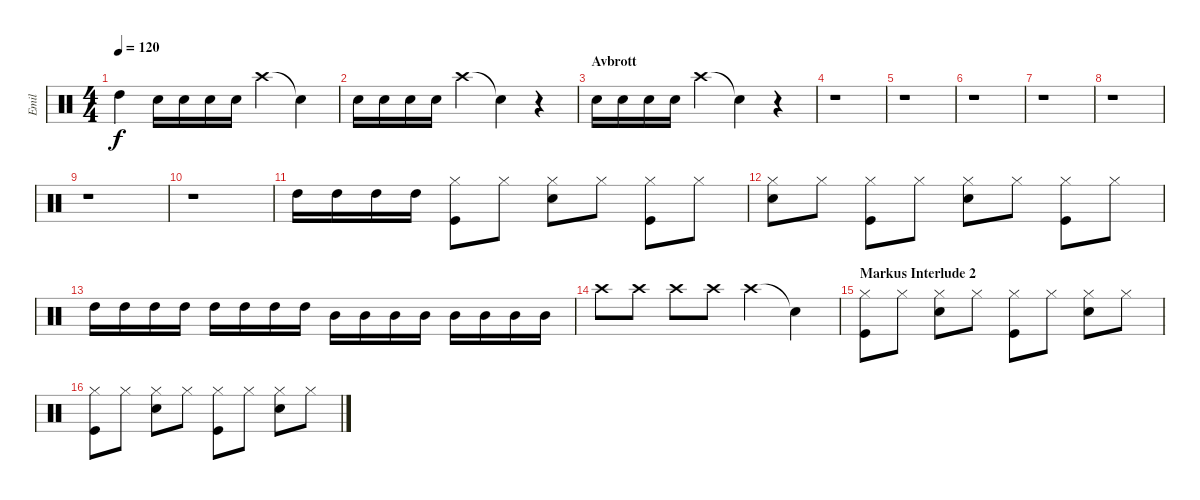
\track ("Emil" "Emil") {instrument percussion}
\staff {score}
\articulation defaults
\ts (4 4)
\tempo 120
\clef neutral
\ks c "High Tom (hit)".4{dy f} "Electric Snare (hit)".16 "Electric Snare (hit)".16 "Electric Snare (hit)".16 "Electric Snare (hit)".16 "Crash high (hit)".4 "Snare (hit)"{t}.4
|
"Electric Snare (hit)".16 "Electric Snare (hit)".16 "Electric Snare (hit)".16 "Electric Snare (hit)".16 "Crash high (hit)".4 "Snare (hit)"{t}.4 r.4 |
\section ("" "Avbrott")
"Electric Snare (hit)".16 "Electric Snare (hit)".16 "Electric Snare (hit)".16 "Electric Snare (hit)".16 "Crash high (hit)".4 "Snare (hit)"{t}.4 r.4 |
r.1 |
r.1 |
r.1 |
r.1 |
r.1 |
r.1 |
r.1 |
"High Tom (hit)".16 "High Tom (hit)".16 "High Tom (hit)".16 "High Tom (hit)".16 ("Hi-Hat (closed)" "Kick (hit)").8 "Hi-Hat (closed)".8 ("Hi-Hat (closed)" "Electric Snare (hit)").8 "Hi-Hat (closed)".8 ("Hi-Hat (closed)" "Kick (hit)").8 "Hi-Hat (closed)".8 |
("Hi-Hat (closed)" "Electric Snare (hit)").8 "Hi-Hat (closed)".8 ("Hi-Hat (closed)" "Kick (hit)").8 "Hi-Hat (closed)".8 ("Hi-Hat (closed)" "Electric Snare (hit)").8 "Hi-Hat (closed)".8 ("Hi-Hat (closed)" "Kick (hit)").8 "Hi-Hat (closed)".8 |
"High Tom (hit)".16 "High Tom (hit)".16 "High Tom (hit)".16 "High Tom (hit)".16 "High Tom (hit)".16 "High Tom (hit)".16 "High Tom (hit)".16 "High Tom (hit)".16 "Mid Tom (hit)".16 "Mid Tom (hit)".16 "Mid Tom (hit)".16 "Mid Tom (hit)".16 "Mid Tom (hit)".16 "Mid Tom (hit)".16 "Mid Tom (hit)".16 "Mid Tom (hit)".16 |
"Crash high (hit)".8 "Crash high (hit)".8 "Crash high (hit)".8 "Crash high (hit)".8 "Crash high (hit)".4 "Snare (hit)"{t}.4 |
\section ("" "Markus Interlude 2")
("Hi-Hat (closed)" "Kick (hit)").8 "Hi-Hat (closed)".8 ("Hi-Hat (closed)" "Electric Snare (hit)").8 "Hi-Hat (closed)".8 ("Hi-Hat (closed)" "Kick (hit)").8 "Hi-Hat (closed)".8 ("Hi-Hat (closed)" "Electric Snare (hit)").8 "Hi-Hat (closed)".8 |
("Hi-Hat (closed)" "Kick (hit)").8 "Hi-Hat (closed)".8 ("Hi-Hat (closed)" "Electric Snare (hit)").8 "Hi-Hat (closed)".8 ("Hi-Hat (closed)" "Kick (hit)").8 "Hi-Hat (closed)".8 ("Hi-Hat (closed)" "Electric Snare (hit)").8 "Hi-Hat (closed)".8
